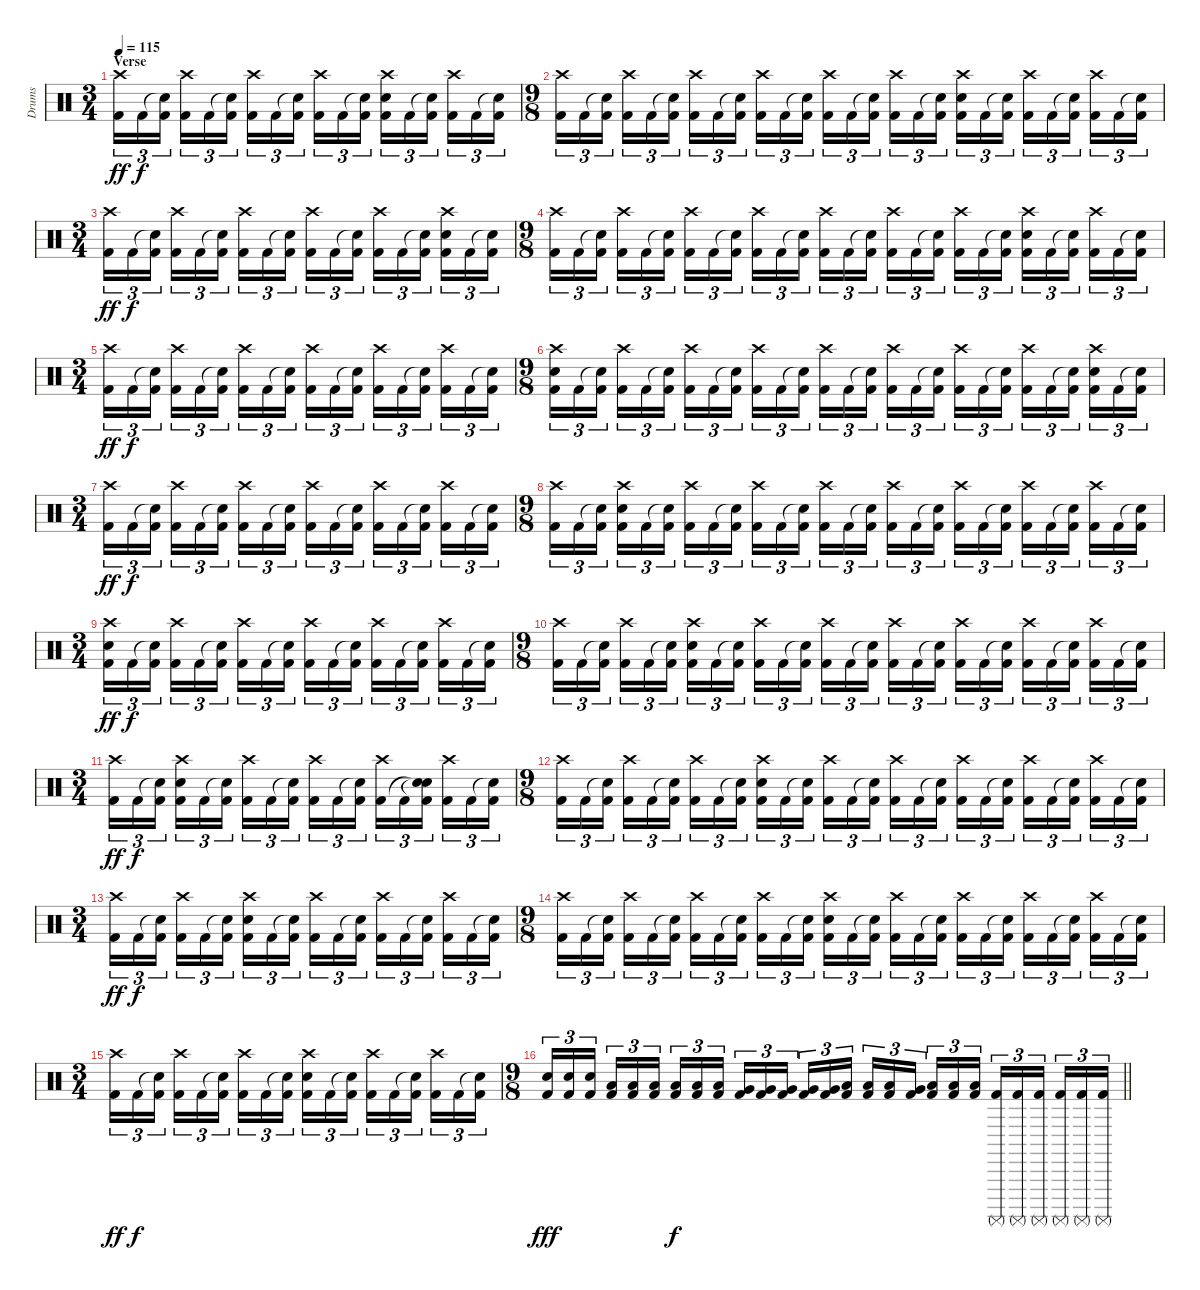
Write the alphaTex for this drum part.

\track ("Drums" "Drums") {instrument percussion}
\staff {score}
\articulation defaults
\ts (3 4)
\section ("" "Verse")
\tempo 115
\clef neutral
\ks c
("Crash high (hit)" "Kick (hit) 2").16{tu (3 2) dy ff} "Kick (hit) 2".16{tu (3 2) dy f} ("Snare (hit)"{t} "Kick (hit) 2").16{tu (3 2) beam splitsecondary} ("Crash high (hit)" "Kick (hit) 2").16{tu (3 2)} "Kick (hit) 2".16{tu (3 2)} ("Snare (hit)"{t} "Kick (hit) 2").16{tu (3 2)} ("Crash high (hit)" "Kick (hit) 2").16{tu (3 2)} "Kick (hit) 2".16{tu (3 2)} ("Snare (hit)"{t} "Kick (hit) 2").16{tu (3 2) beam splitsecondary} ("Crash high (hit)" "Kick (hit) 2").16{tu (3 2)} "Kick (hit) 2".16{tu (3 2)} ("Snare (hit)"{t} "Kick (hit) 2").16{tu (3 2)} ("Crash high (hit)" "Electric Snare (hit)" "Kick (hit) 2").16{tu (3 2)} "Kick (hit) 2".16{tu (3 2)} ("Snare (hit)"{t} "Kick (hit) 2").16{tu (3 2) beam splitsecondary} ("Crash high (hit)" "Kick (hit) 2").16{tu (3 2)} "Kick (hit) 2".16{tu (3 2)} ("Snare (hit)"{t} "Kick (hit) 2").16{tu (3 2)} |
\ts (9 8)
("Crash high (hit)" "Kick (hit) 2").16{tu (3 2)} "Kick (hit) 2".16{tu (3 2)} ("Snare (hit)"{t} "Kick (hit) 2").16{tu (3 2) beam splitsecondary} ("Crash high (hit)" "Kick (hit) 2").16{tu (3 2)} "Kick (hit) 2".16{tu (3 2)} ("Snare (hit)"{t} "Kick (hit) 2").16{tu (3 2) beam splitsecondary} ("Crash high (hit)" "Kick (hit) 2").16{tu (3 2)} "Kick (hit) 2".16{tu (3 2)} ("Snare (hit)"{t} "Kick (hit) 2").16{tu (3 2)} ("Crash high (hit)" "Kick (hit) 2").16{tu (3 2)} "Kick (hit) 2".16{tu (3 2)} ("Snare (hit)"{t} "Kick (hit) 2").16{tu (3 2) beam splitsecondary} ("Crash high (hit)" "Kick (hit) 2").16{tu (3 2)} "Kick (hit) 2".16{tu (3 2)} ("Snare (hit)"{t} "Kick (hit) 2").16{tu (3 2) beam splitsecondary} ("Crash high (hit)" "Kick (hit) 2").16{tu (3 2)} "Kick (hit) 2".16{tu (3 2)} ("Snare (hit)"{t} "Kick (hit) 2").16{tu (3 2)} ("Crash high (hit)" "Electric Snare (hit)" "Kick (hit) 2").16{tu (3 2)} "Kick (hit) 2".16{tu (3 2)} ("Snare (hit)"{t} "Kick (hit) 2").16{tu (3 2) beam splitsecondary} ("Crash high (hit)" "Kick (hit) 2").16{tu (3 2)} "Kick (hit) 2".16{tu (3 2)} ("Snare (hit)"{t} "Kick (hit) 2").16{tu (3 2) beam splitsecondary} ("Crash high (hit)" "Kick (hit) 2").16{tu (3 2)} "Kick (hit) 2".16{tu (3 2)} ("Snare (hit)"{t} "Kick (hit) 2").16{tu (3 2)} |
\ts (3 4)
("Crash high (hit)" "Kick (hit) 2").16{tu (3 2) dy ff} "Kick (hit) 2".16{tu (3 2) dy f} ("Snare (hit)"{t} "Kick (hit) 2").16{tu (3 2) beam splitsecondary} ("Crash high (hit)" "Kick (hit) 2").16{tu (3 2)} "Kick (hit) 2".16{tu (3 2)} ("Snare (hit)"{t} "Kick (hit) 2").16{tu (3 2)} ("Crash high (hit)" "Kick (hit) 2").16{tu (3 2)} "Kick (hit) 2".16{tu (3 2)} ("Snare (hit)"{t} "Kick (hit) 2").16{tu (3 2) beam splitsecondary} ("Crash high (hit)" "Kick (hit) 2").16{tu (3 2)} "Kick (hit) 2".16{tu (3 2)} ("Snare (hit)"{t} "Kick (hit) 2").16{tu (3 2)} ("Crash high (hit)" "Kick (hit) 2").16{tu (3 2)} "Kick (hit) 2".16{tu (3 2)} ("Snare (hit)"{t} "Kick (hit) 2").16{tu (3 2) beam splitsecondary} ("Crash high (hit)" "Electric Snare (hit)" "Kick (hit) 2").16{tu (3 2)} "Kick (hit) 2".16{tu (3 2)} ("Snare (hit)"{t} "Kick (hit) 2").16{tu (3 2)} |
\ts (9 8)
("Crash high (hit)" "Kick (hit) 2").16{tu (3 2)} "Kick (hit) 2".16{tu (3 2)} ("Snare (hit)"{t} "Kick (hit) 2").16{tu (3 2) beam splitsecondary} ("Crash high (hit)" "Kick (hit) 2").16{tu (3 2)} "Kick (hit) 2".16{tu (3 2)} ("Snare (hit)"{t} "Kick (hit) 2").16{tu (3 2) beam splitsecondary} ("Crash high (hit)" "Kick (hit) 2").16{tu (3 2)} "Kick (hit) 2".16{tu (3 2)} ("Snare (hit)"{t} "Kick (hit) 2").16{tu (3 2)} ("Crash high (hit)" "Kick (hit) 2").16{tu (3 2)} "Kick (hit) 2".16{tu (3 2)} ("Snare (hit)"{t} "Kick (hit) 2").16{tu (3 2) beam splitsecondary} ("Crash high (hit)" "Kick (hit) 2").16{tu (3 2)} "Kick (hit) 2".16{tu (3 2)} ("Snare (hit)"{t} "Kick (hit) 2").16{tu (3 2) beam splitsecondary} ("Crash high (hit)" "Kick (hit) 2").16{tu (3 2)} "Kick (hit) 2".16{tu (3 2)} ("Snare (hit)"{t} "Kick (hit) 2").16{tu (3 2)} ("Crash high (hit)" "Kick (hit) 2").16{tu (3 2)} "Kick (hit) 2".16{tu (3 2)} ("Snare (hit)"{t} "Kick (hit) 2").16{tu (3 2) beam splitsecondary} ("Crash high (hit)" "Electric Snare (hit)" "Kick (hit) 2").16{tu (3 2)} "Kick (hit) 2".16{tu (3 2)} ("Snare (hit)"{t} "Kick (hit) 2").16{tu (3 2) beam splitsecondary} ("Crash high (hit)" "Kick (hit) 2").16{tu (3 2)} "Kick (hit) 2".16{tu (3 2)} ("Snare (hit)"{t} "Kick (hit) 2").16{tu (3 2)} |
\ts (3 4)
("Crash high (hit)" "Kick (hit) 2").16{tu (3 2) dy ff} "Kick (hit) 2".16{tu (3 2) dy f} ("Snare (hit)"{t} "Kick (hit) 2").16{tu (3 2) beam splitsecondary} ("Crash high (hit)" "Kick (hit) 2").16{tu (3 2)} "Kick (hit) 2".16{tu (3 2)} ("Snare (hit)"{t} "Kick (hit) 2").16{tu (3 2)} ("Crash high (hit)" "Kick (hit) 2").16{tu (3 2)} "Kick (hit) 2".16{tu (3 2)} ("Snare (hit)"{t} "Kick (hit) 2").16{tu (3 2) beam splitsecondary} ("Crash high (hit)" "Kick (hit) 2").16{tu (3 2)} "Kick (hit) 2".16{tu (3 2)} ("Snare (hit)"{t} "Kick (hit) 2").16{tu (3 2)} ("Crash high (hit)" "Kick (hit) 2").16{tu (3 2)} "Kick (hit) 2".16{tu (3 2)} ("Snare (hit)"{t} "Kick (hit) 2").16{tu (3 2) beam splitsecondary} ("Crash high (hit)" "Kick (hit) 2").16{tu (3 2)} "Kick (hit) 2".16{tu (3 2)} ("Snare (hit)"{t} "Kick (hit) 2").16{tu (3 2)} |
\ts (9 8)
("Crash high (hit)" "Electric Snare (hit)" "Kick (hit) 2").16{tu (3 2)} "Kick (hit) 2".16{tu (3 2)} ("Snare (hit)"{t} "Kick (hit) 2").16{tu (3 2) beam splitsecondary} ("Crash high (hit)" "Kick (hit) 2").16{tu (3 2)} "Kick (hit) 2".16{tu (3 2)} ("Snare (hit)"{t} "Kick (hit) 2").16{tu (3 2) beam splitsecondary} ("Crash high (hit)" "Kick (hit) 2").16{tu (3 2)} "Kick (hit) 2".16{tu (3 2)} ("Snare (hit)"{t} "Kick (hit) 2").16{tu (3 2)} ("Crash high (hit)" "Kick (hit) 2").16{tu (3 2)} "Kick (hit) 2".16{tu (3 2)} ("Snare (hit)"{t} "Kick (hit) 2").16{tu (3 2) beam splitsecondary} ("Crash high (hit)" "Kick (hit) 2").16{tu (3 2)} "Kick (hit) 2".16{tu (3 2)} ("Snare (hit)"{t} "Kick (hit) 2").16{tu (3 2) beam splitsecondary} ("Crash high (hit)" "Kick (hit) 2").16{tu (3 2)} "Kick (hit) 2".16{tu (3 2)} ("Snare (hit)"{t} "Kick (hit) 2").16{tu (3 2)} ("Crash high (hit)" "Kick (hit) 2").16{tu (3 2)} "Kick (hit) 2".16{tu (3 2)} ("Snare (hit)"{t} "Kick (hit) 2").16{tu (3 2) beam splitsecondary} ("Crash high (hit)" "Kick (hit) 2").16{tu (3 2)} "Kick (hit) 2".16{tu (3 2)} ("Snare (hit)"{t} "Kick (hit) 2").16{tu (3 2) beam splitsecondary} ("Crash high (hit)" "Electric Snare (hit)" "Kick (hit) 2").16{tu (3 2)} "Kick (hit) 2".16{tu (3 2)} ("Snare (hit)"{t} "Kick (hit) 2").16{tu (3 2)} |
\ts (3 4)
("Crash high (hit)" "Kick (hit) 2").16{tu (3 2) dy ff} "Kick (hit) 2".16{tu (3 2) dy f} ("Snare (hit)"{t} "Kick (hit) 2").16{tu (3 2) beam splitsecondary} ("Crash high (hit)" "Kick (hit) 2").16{tu (3 2)} "Kick (hit) 2".16{tu (3 2)} ("Snare (hit)"{t} "Kick (hit) 2").16{tu (3 2)} ("Crash high (hit)" "Kick (hit) 2").16{tu (3 2)} "Kick (hit) 2".16{tu (3 2)} ("Snare (hit)"{t} "Kick (hit) 2").16{tu (3 2) beam splitsecondary} ("Crash high (hit)" "Kick (hit) 2").16{tu (3 2)} "Kick (hit) 2".16{tu (3 2)} ("Snare (hit)"{t} "Kick (hit) 2").16{tu (3 2)} ("Crash high (hit)" "Kick (hit) 2").16{tu (3 2)} "Kick (hit) 2".16{tu (3 2)} ("Snare (hit)"{t} "Kick (hit) 2").16{tu (3 2) beam splitsecondary} ("Crash high (hit)" "Kick (hit) 2").16{tu (3 2)} "Kick (hit) 2".16{tu (3 2)} ("Snare (hit)"{t} "Kick (hit) 2").16{tu (3 2)} |
\ts (9 8)
("Crash high (hit)" "Kick (hit) 2").16{tu (3 2)} "Kick (hit) 2".16{tu (3 2)} ("Snare (hit)"{t} "Kick (hit) 2").16{tu (3 2) beam splitsecondary} ("Crash high (hit)" "Electric Snare (hit)" "Kick (hit) 2").16{tu (3 2)} "Kick (hit) 2".16{tu (3 2)} ("Snare (hit)"{t} "Kick (hit) 2").16{tu (3 2) beam splitsecondary} ("Crash high (hit)" "Kick (hit) 2").16{tu (3 2)} "Kick (hit) 2".16{tu (3 2)} ("Snare (hit)"{t} "Kick (hit) 2").16{tu (3 2)} ("Crash high (hit)" "Kick (hit) 2").16{tu (3 2)} "Kick (hit) 2".16{tu (3 2)} ("Snare (hit)"{t} "Kick (hit) 2").16{tu (3 2) beam splitsecondary} ("Crash high (hit)" "Kick (hit) 2").16{tu (3 2)} "Kick (hit) 2".16{tu (3 2)} ("Snare (hit)"{t} "Kick (hit) 2").16{tu (3 2) beam splitsecondary} ("Crash high (hit)" "Kick (hit) 2").16{tu (3 2)} "Kick (hit) 2".16{tu (3 2)} ("Snare (hit)"{t} "Kick (hit) 2").16{tu (3 2)} ("Crash high (hit)" "Kick (hit) 2").16{tu (3 2)} "Kick (hit) 2".16{tu (3 2)} ("Snare (hit)"{t} "Kick (hit) 2").16{tu (3 2) beam splitsecondary} ("Crash high (hit)" "Kick (hit) 2").16{tu (3 2)} "Kick (hit) 2".16{tu (3 2)} ("Snare (hit)"{t} "Kick (hit) 2").16{tu (3 2) beam splitsecondary} ("Crash high (hit)" "Kick (hit) 2").16{tu (3 2)} "Kick (hit) 2".16{tu (3 2)} ("Snare (hit)"{t} "Kick (hit) 2").16{tu (3 2)} |
\ts (3 4)
("Crash high (hit)" "Electric Snare (hit)" "Kick (hit) 2").16{tu (3 2) dy ff} "Kick (hit) 2".16{tu (3 2) dy f} ("Snare (hit)"{t} "Kick (hit) 2").16{tu (3 2) beam splitsecondary} ("Crash high (hit)" "Kick (hit) 2").16{tu (3 2)} "Kick (hit) 2".16{tu (3 2)} ("Snare (hit)"{t} "Kick (hit) 2").16{tu (3 2)} ("Crash high (hit)" "Kick (hit) 2").16{tu (3 2)} "Kick (hit) 2".16{tu (3 2)} ("Snare (hit)"{t} "Kick (hit) 2").16{tu (3 2) beam splitsecondary} ("Crash high (hit)" "Kick (hit) 2").16{tu (3 2)} "Kick (hit) 2".16{tu (3 2)} ("Snare (hit)"{t} "Kick (hit) 2").16{tu (3 2)} ("Crash high (hit)" "Kick (hit) 2").16{tu (3 2)} "Kick (hit) 2".16{tu (3 2)} ("Snare (hit)"{t} "Kick (hit) 2").16{tu (3 2) beam splitsecondary} ("Crash high (hit)" "Kick (hit) 2").16{tu (3 2)} "Kick (hit) 2".16{tu (3 2)} ("Snare (hit)"{t} "Kick (hit) 2").16{tu (3 2)} |
\ts (9 8)
("Crash high (hit)" "Kick (hit) 2").16{tu (3 2)} "Kick (hit) 2".16{tu (3 2)} ("Snare (hit)"{t} "Kick (hit) 2").16{tu (3 2) beam splitsecondary} ("Crash high (hit)" "Kick (hit) 2").16{tu (3 2)} "Kick (hit) 2".16{tu (3 2)} ("Snare (hit)"{t} "Kick (hit) 2").16{tu (3 2) beam splitsecondary} ("Crash high (hit)" "Electric Snare (hit)" "Kick (hit) 2").16{tu (3 2)} "Kick (hit) 2".16{tu (3 2)} ("Snare (hit)"{t} "Kick (hit) 2").16{tu (3 2)} ("Crash high (hit)" "Kick (hit) 2").16{tu (3 2)} "Kick (hit) 2".16{tu (3 2)} ("Snare (hit)"{t} "Kick (hit) 2").16{tu (3 2) beam splitsecondary} ("Crash high (hit)" "Kick (hit) 2").16{tu (3 2)} "Kick (hit) 2".16{tu (3 2)} ("Snare (hit)"{t} "Kick (hit) 2").16{tu (3 2) beam splitsecondary} ("Crash high (hit)" "Kick (hit) 2").16{tu (3 2)} "Kick (hit) 2".16{tu (3 2)} ("Snare (hit)"{t} "Kick (hit) 2").16{tu (3 2)} ("Crash high (hit)" "Kick (hit) 2").16{tu (3 2)} "Kick (hit) 2".16{tu (3 2)} ("Snare (hit)"{t} "Kick (hit) 2").16{tu (3 2) beam splitsecondary} ("Crash high (hit)" "Kick (hit) 2").16{tu (3 2)} "Kick (hit) 2".16{tu (3 2)} ("Snare (hit)"{t} "Kick (hit) 2").16{tu (3 2) beam splitsecondary} ("Crash high (hit)" "Kick (hit) 2").16{tu (3 2)} "Kick (hit) 2".16{tu (3 2)} ("Snare (hit)"{t} "Kick (hit) 2").16{tu (3 2)} |
\ts (3 4)
("Crash high (hit)" "Kick (hit) 2").16{tu (3 2) dy ff} "Kick (hit) 2".16{tu (3 2) dy f} ("Snare (hit)"{t} "Kick (hit) 2").16{tu (3 2) beam splitsecondary} ("Crash high (hit)" "Electric Snare (hit)" "Kick (hit) 2").16{tu (3 2)} "Kick (hit) 2".16{tu (3 2)} ("Snare (hit)"{t} "Kick (hit) 2").16{tu (3 2)} ("Crash high (hit)" "Kick (hit) 2").16{tu (3 2)} "Kick (hit) 2".16{tu (3 2)} ("Snare (hit)"{t} "Kick (hit) 2").16{tu (3 2) beam splitsecondary} ("Crash high (hit)" "Kick (hit) 2").16{tu (3 2)} "Kick (hit) 2".16{tu (3 2)} ("Snare (hit)"{t} "Kick (hit) 2").16{tu (3 2)} ("Crash high (hit)" "Kick (hit) 2").16{tu (3 2)} "Kick (hit) 2".16{tu (3 2)} ("Snare (hit)"{t} "Snare (hit)"{t} "Kick (hit) 2").16{tu (3 2) beam splitsecondary} ("Crash high (hit)" "Kick (hit) 2").16{tu (3 2)} "Kick (hit) 2".16{tu (3 2)} ("Snare (hit)"{t} "Kick (hit) 2").16{tu (3 2)} |
\ts (9 8)
("Crash high (hit)" "Kick (hit) 2").16{tu (3 2)} "Kick (hit) 2".16{tu (3 2)} ("Snare (hit)"{t} "Kick (hit) 2").16{tu (3 2) beam splitsecondary} ("Crash high (hit)" "Kick (hit) 2").16{tu (3 2)} "Kick (hit) 2".16{tu (3 2)} ("Snare (hit)"{t} "Kick (hit) 2").16{tu (3 2) beam splitsecondary} ("Crash high (hit)" "Kick (hit) 2").16{tu (3 2)} "Kick (hit) 2".16{tu (3 2)} ("Snare (hit)"{t} "Kick (hit) 2").16{tu (3 2)} ("Crash high (hit)" "Electric Snare (hit)" "Kick (hit) 2").16{tu (3 2)} "Kick (hit) 2".16{tu (3 2)} ("Snare (hit)"{t} "Kick (hit) 2").16{tu (3 2) beam splitsecondary} ("Crash high (hit)" "Kick (hit) 2").16{tu (3 2)} "Kick (hit) 2".16{tu (3 2)} ("Snare (hit)"{t} "Kick (hit) 2").16{tu (3 2) beam splitsecondary} ("Crash high (hit)" "Kick (hit) 2").16{tu (3 2)} "Kick (hit) 2".16{tu (3 2)} ("Snare (hit)"{t} "Kick (hit) 2").16{tu (3 2)} ("Crash high (hit)" "Kick (hit) 2").16{tu (3 2)} "Kick (hit) 2".16{tu (3 2)} ("Snare (hit)"{t} "Kick (hit) 2").16{tu (3 2) beam splitsecondary} ("Crash high (hit)" "Kick (hit) 2").16{tu (3 2)} "Kick (hit) 2".16{tu (3 2)} ("Snare (hit)"{t} "Kick (hit) 2").16{tu (3 2) beam splitsecondary} ("Crash high (hit)" "Kick (hit) 2").16{tu (3 2)} "Kick (hit) 2".16{tu (3 2)} ("Snare (hit)"{t} "Kick (hit) 2").16{tu (3 2)} |
\ts (3 4)
("Crash high (hit)" "Kick (hit) 2").16{tu (3 2) dy ff} "Kick (hit) 2".16{tu (3 2) dy f} ("Snare (hit)"{t} "Kick (hit) 2").16{tu (3 2) beam splitsecondary} ("Crash high (hit)" "Kick (hit) 2").16{tu (3 2)} "Kick (hit) 2".16{tu (3 2)} ("Snare (hit)"{t} "Kick (hit) 2").16{tu (3 2)} ("Crash high (hit)" "Electric Snare (hit)" "Kick (hit) 2").16{tu (3 2)} "Kick (hit) 2".16{tu (3 2)} ("Snare (hit)"{t} "Kick (hit) 2").16{tu (3 2) beam splitsecondary} ("Crash high (hit)" "Kick (hit) 2").16{tu (3 2)} "Kick (hit) 2".16{tu (3 2)} ("Snare (hit)"{t} "Kick (hit) 2").16{tu (3 2)} ("Crash high (hit)" "Kick (hit) 2").16{tu (3 2)} "Kick (hit) 2".16{tu (3 2)} ("Snare (hit)"{t} "Kick (hit) 2").16{tu (3 2) beam splitsecondary} ("Crash high (hit)" "Kick (hit) 2").16{tu (3 2)} "Kick (hit) 2".16{tu (3 2)} ("Snare (hit)"{t} "Kick (hit) 2").16{tu (3 2)} |
\ts (9 8)
("Crash high (hit)" "Kick (hit) 2").16{tu (3 2)} "Kick (hit) 2".16{tu (3 2)} ("Snare (hit)"{t} "Kick (hit) 2").16{tu (3 2) beam splitsecondary} ("Crash high (hit)" "Kick (hit) 2").16{tu (3 2)} "Kick (hit) 2".16{tu (3 2)} ("Snare (hit)"{t} "Kick (hit) 2").16{tu (3 2) beam splitsecondary} ("Crash high (hit)" "Kick (hit) 2").16{tu (3 2)} "Kick (hit) 2".16{tu (3 2)} ("Snare (hit)"{t} "Kick (hit) 2").16{tu (3 2)} ("Crash high (hit)" "Kick (hit) 2").16{tu (3 2)} "Kick (hit) 2".16{tu (3 2)} ("Snare (hit)"{t} "Kick (hit) 2").16{tu (3 2) beam splitsecondary} ("Crash high (hit)" "Electric Snare (hit)" "Kick (hit) 2").16{tu (3 2)} "Kick (hit) 2".16{tu (3 2)} ("Snare (hit)"{t} "Kick (hit) 2").16{tu (3 2) beam splitsecondary} ("Crash high (hit)" "Kick (hit) 2").16{tu (3 2)} "Kick (hit) 2".16{tu (3 2)} ("Snare (hit)"{t} "Kick (hit) 2").16{tu (3 2)} ("Crash high (hit)" "Kick (hit) 2").16{tu (3 2)} "Kick (hit) 2".16{tu (3 2)} ("Snare (hit)"{t} "Kick (hit) 2").16{tu (3 2) beam splitsecondary} ("Crash high (hit)" "Kick (hit) 2").16{tu (3 2)} "Kick (hit) 2".16{tu (3 2)} ("Snare (hit)"{t} "Kick (hit) 2").16{tu (3 2) beam splitsecondary} ("Crash high (hit)" "Kick (hit) 2").16{tu (3 2)} "Kick (hit) 2".16{tu (3 2)} ("Snare (hit)"{t} "Kick (hit) 2").16{tu (3 2)} |
\ts (3 4)
("Crash high (hit)" "Kick (hit) 2").16{tu (3 2) dy ff} "Kick (hit) 2".16{tu (3 2) dy f} ("Snare (hit)"{t} "Kick (hit) 2").16{tu (3 2) beam splitsecondary} ("Crash high (hit)" "Kick (hit) 2").16{tu (3 2)} "Kick (hit) 2".16{tu (3 2)} ("Snare (hit)"{t} "Kick (hit) 2").16{tu (3 2)} ("Crash high (hit)" "Kick (hit) 2").16{tu (3 2)} "Kick (hit) 2".16{tu (3 2)} ("Snare (hit)"{t} "Kick (hit) 2").16{tu (3 2) beam splitsecondary} ("Crash high (hit)" "Electric Snare (hit)" "Kick (hit) 2").16{tu (3 2)} "Kick (hit) 2".16{tu (3 2)} ("Snare (hit)"{t} "Kick (hit) 2").16{tu (3 2)} ("Crash high (hit)" "Kick (hit) 2").16{tu (3 2)} "Kick (hit) 2".16{tu (3 2)} ("Snare (hit)"{t} "Kick (hit) 2").16{tu (3 2) beam splitsecondary} ("Crash high (hit)" "Kick (hit) 2").16{tu (3 2)} "Kick (hit) 2".16{tu (3 2)} ("Snare (hit)"{t} "Kick (hit) 2").16{tu (3 2)} |
\ts (9 8)
\barLineRight lightlight
("Snare (hit) 2" "Kick (hit) 2").16{tu (3 2) dy fff} ("Snare (hit) 2" "Kick (hit) 2").16{tu (3 2)} ("Snare (hit) 2" "Kick (hit) 2").16{tu (3 2) beam splitsecondary} ("Low Tom (hit)" "Kick (hit) 2").16{tu (3 2)} ("Low Tom (hit)" "Kick (hit) 2").16{tu (3 2)} ("Low Tom (hit)" "Kick (hit) 2").16{tu (3 2) beam splitsecondary} ("Low Tom (hit)" "Kick (hit) 2").16{tu (3 2) dy f} ("Low Tom (hit)" "Kick (hit) 2").16{tu (3 2)} ("Low Tom (hit)" "Kick (hit) 2").16{tu (3 2)} ("Very Low Tom (hit)" "Kick (hit) 2").16{tu (3 2)} ("Very Low Tom (hit)" "Kick (hit) 2").16{tu (3 2)} ("Very Low Tom (hit)" "Kick (hit) 2").16{tu (3 2) beam splitsecondary} ("Very Low Tom (hit)" "Kick (hit) 2").16{tu (3 2)} ("Very Low Tom (hit)" "Kick (hit) 2").16{tu (3 2)} ("Low Floor Tom (hit)" "Kick (hit) 2").16{tu (3 2) beam splitsecondary} ("Low Floor Tom (hit)" "Kick (hit) 2").16{tu (3 2)} ("Low Floor Tom (hit)" "Kick (hit) 2").16{tu (3 2)} ("Very Low Tom (hit)" "Kick (hit) 2").16{tu (3 2)} ("Low Floor Tom (hit)" "Kick (hit) 2").16{tu (3 2)} ("Low Floor Tom (hit)" "Kick (hit) 2").16{tu (3 2)} ("Low Floor Tom (hit)" "Kick (hit) 2").16{tu (3 2) beam splitsecondary} ("Surdo (mute)" "Kick (hit) 2").16{tu (3 2)} ("Surdo (mute)" "Kick (hit) 2").16{tu (3 2)} ("Surdo (mute)" "Kick (hit) 2").16{tu (3 2) beam splitsecondary} ("Surdo (mute)" "Kick (hit) 2").16{tu (3 2)} ("Surdo (mute)" "Kick (hit) 2").16{tu (3 2)} ("Surdo (mute)" "Kick (hit) 2").16{tu (3 2)}
